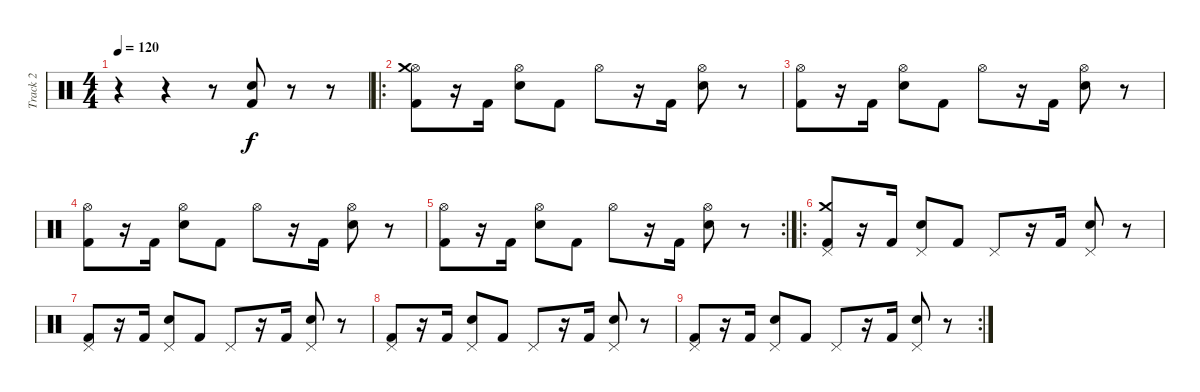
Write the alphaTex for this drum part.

\track ("Track 2" "Track 2") {instrument percussion}
\staff {score}
\articulation defaults
\ts (4 4)
\tempo 120
\clef neutral
\ks c
r.4{dy f} r.4 r.8 ("Snare (hit) 2" "Kick (hit) 2").8 r.8 r.8 |
\ro
("Hi-Hat (open)" "Crash medium (hit)" "Kick (hit) 2").8 r.16 "Kick (hit) 2".16 ("Hi-Hat (open)" "Snare (hit) 2").8 "Kick (hit) 2".8 "Hi-Hat (open)".8 r.16 "Kick (hit) 2".16 ("Hi-Hat (open)" "Snare (hit) 2").8 r.8 |
("Hi-Hat (open)" "Kick (hit) 2").8 r.16 "Kick (hit) 2".16 ("Hi-Hat (open)" "Snare (hit) 2").8 "Kick (hit) 2".8 "Hi-Hat (open)".8 r.16 "Kick (hit) 2".16 ("Hi-Hat (open)" "Snare (hit) 2").8 r.8 |
("Hi-Hat (open)" "Kick (hit) 2").8 r.16 "Kick (hit) 2".16 ("Hi-Hat (open)" "Snare (hit) 2").8 "Kick (hit) 2".8 "Hi-Hat (open)".8 r.16 "Kick (hit) 2".16 ("Hi-Hat (open)" "Snare (hit) 2").8 r.8 |
\rc 2
("Hi-Hat (open)" "Kick (hit) 2").8 r.16 "Kick (hit) 2".16 ("Hi-Hat (open)" "Snare (hit) 2").8 "Kick (hit) 2".8 "Hi-Hat (open)".8 r.16 "Kick (hit) 2".16 ("Hi-Hat (open)" "Snare (hit) 2").8 r.8 |
\ro
("Pedal Hi-Hat (hit)" "Crash medium (hit)" "Kick (hit) 2").8 r.16 "Kick (hit) 2".16 ("Pedal Hi-Hat (hit)" "Snare (hit) 2").8 "Kick (hit) 2".8 "Pedal Hi-Hat (hit)".8 r.16 "Kick (hit) 2".16 ("Pedal Hi-Hat (hit)" "Snare (hit) 2").8 r.8 |
("Pedal Hi-Hat (hit)" "Kick (hit) 2").8 r.16 "Kick (hit) 2".16 ("Pedal Hi-Hat (hit)" "Snare (hit) 2").8 "Kick (hit) 2".8 "Pedal Hi-Hat (hit)".8 r.16 "Kick (hit) 2".16 ("Pedal Hi-Hat (hit)" "Snare (hit) 2").8 r.8 |
("Pedal Hi-Hat (hit)" "Kick (hit) 2").8 r.16 "Kick (hit) 2".16 ("Pedal Hi-Hat (hit)" "Snare (hit) 2").8 "Kick (hit) 2".8 "Pedal Hi-Hat (hit)".8 r.16 "Kick (hit) 2".16 ("Pedal Hi-Hat (hit)" "Snare (hit) 2").8 r.8 |
\rc 2
("Pedal Hi-Hat (hit)" "Kick (hit) 2").8 r.16 "Kick (hit) 2".16 ("Pedal Hi-Hat (hit)" "Snare (hit) 2").8 "Kick (hit) 2".8 "Pedal Hi-Hat (hit)".8 r.16 "Kick (hit) 2".16 ("Pedal Hi-Hat (hit)" "Snare (hit) 2").8 r.8
